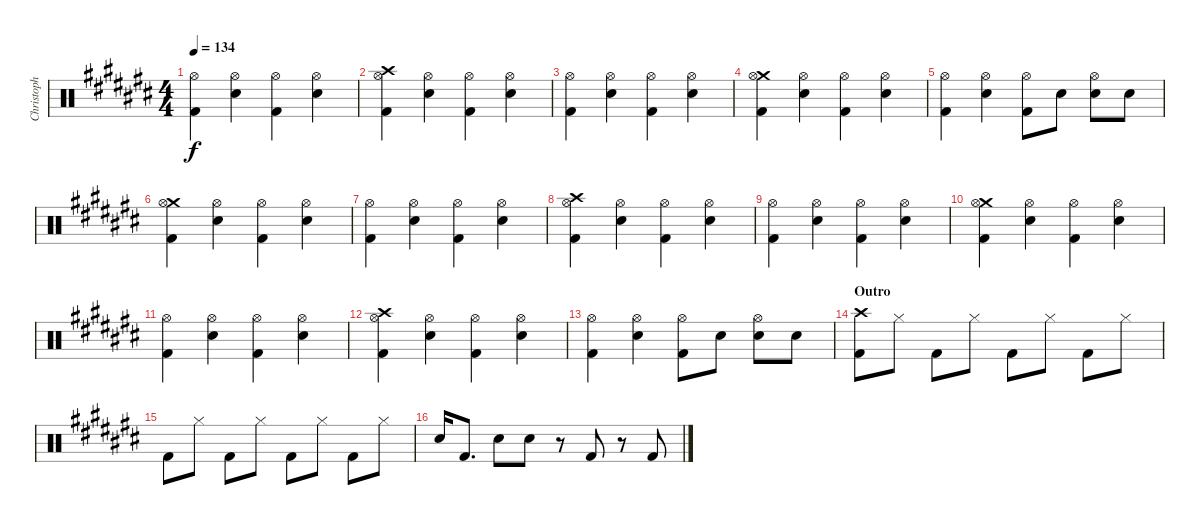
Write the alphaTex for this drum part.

\track ("Christoph Doom Schneider - Drums" "Christoph ") {instrument percussion}
\staff {score}
\articulation defaults
\ts (4 4)
\tempo 134
\clef neutral
\ks c#
("Hi-Hat (open)" "Kick (hit) 2").4{dy f} ("Hi-Hat (open)" "Electric Snare (hit)").4 ("Hi-Hat (open)" "Kick (hit) 2").4 ("Hi-Hat (open)" "Electric Snare (hit)").4 |
("Crash high (hit)" "Hi-Hat (open)" "Kick (hit) 2").4 ("Hi-Hat (open)" "Electric Snare (hit)").4 ("Hi-Hat (open)" "Kick (hit) 2").4 ("Hi-Hat (open)" "Electric Snare (hit)").4 |
("Hi-Hat (open)" "Kick (hit) 2").4 ("Hi-Hat (open)" "Electric Snare (hit)").4 ("Hi-Hat (open)" "Kick (hit) 2").4 ("Hi-Hat (open)" "Electric Snare (hit)").4 |
("Crash medium (hit)" "Hi-Hat (open)" "Kick (hit) 2").4 ("Hi-Hat (open)" "Electric Snare (hit)").4 ("Hi-Hat (open)" "Kick (hit) 2").4 ("Hi-Hat (open)" "Electric Snare (hit)").4 |
("Hi-Hat (open)" "Kick (hit) 2").4 ("Hi-Hat (open)" "Electric Snare (hit)").4 ("Hi-Hat (open)" "Kick (hit) 2").8 "Electric Snare (hit)".8 ("Hi-Hat (open)" "Electric Snare (hit)").8 "Electric Snare (hit)".8 |
("Crash medium (hit)" "Hi-Hat (open)" "Kick (hit) 2").4 ("Hi-Hat (open)" "Electric Snare (hit)").4 ("Hi-Hat (open)" "Kick (hit) 2").4 ("Hi-Hat (open)" "Electric Snare (hit)").4 |
("Hi-Hat (open)" "Kick (hit) 2").4 ("Hi-Hat (open)" "Electric Snare (hit)").4 ("Hi-Hat (open)" "Kick (hit) 2").4 ("Hi-Hat (open)" "Electric Snare (hit)").4 |
("Crash high (hit)" "Hi-Hat (open)" "Kick (hit) 2").4 ("Hi-Hat (open)" "Electric Snare (hit)").4 ("Hi-Hat (open)" "Kick (hit) 2").4 ("Hi-Hat (open)" "Electric Snare (hit)").4 |
("Hi-Hat (open)" "Kick (hit) 2").4 ("Hi-Hat (open)" "Electric Snare (hit)").4 ("Hi-Hat (open)" "Kick (hit) 2").4 ("Hi-Hat (open)" "Electric Snare (hit)").4 |
("Crash medium (hit)" "Hi-Hat (open)" "Kick (hit) 2").4 ("Hi-Hat (open)" "Electric Snare (hit)").4 ("Hi-Hat (open)" "Kick (hit) 2").4 ("Hi-Hat (open)" "Electric Snare (hit)").4 |
("Hi-Hat (open)" "Kick (hit) 2").4 ("Hi-Hat (open)" "Electric Snare (hit)").4 ("Hi-Hat (open)" "Kick (hit) 2").4 ("Hi-Hat (open)" "Electric Snare (hit)").4 |
("Crash high (hit)" "Hi-Hat (open)" "Kick (hit) 2").4 ("Hi-Hat (open)" "Electric Snare (hit)").4 ("Hi-Hat (open)" "Kick (hit) 2").4 ("Hi-Hat (open)" "Electric Snare (hit)").4 |
("Hi-Hat (open)" "Kick (hit) 2").4 ("Hi-Hat (open)" "Electric Snare (hit)").4 ("Hi-Hat (open)" "Kick (hit) 2").8 "Electric Snare (hit)".8 ("Hi-Hat (open)" "Electric Snare (hit)").8 "Electric Snare (hit)".8 |
\section ("" "Outro")
("Crash high (hit)" "Kick (hit) 2").8 "Hi-Hat (closed)".8 "Kick (hit) 2".8 "Hi-Hat (closed)".8 "Kick (hit) 2".8 "Hi-Hat (closed)".8 "Kick (hit) 2".8 "Hi-Hat (closed)".8 |
"Kick (hit) 2".8 "Hi-Hat (closed)".8 "Kick (hit) 2".8 "Hi-Hat (closed)".8 "Kick (hit) 2".8 "Hi-Hat (closed)".8 "Kick (hit) 2".8 "Hi-Hat (closed)".8 |
"Electric Snare (hit)".16 "Kick (hit) 2"{tr (36 32)}.8{d} "Electric Snare (hit)".8 "Electric Snare (hit)".8 r.8 "Kick (hit) 2".8 r.8 "Kick (hit) 2".8
